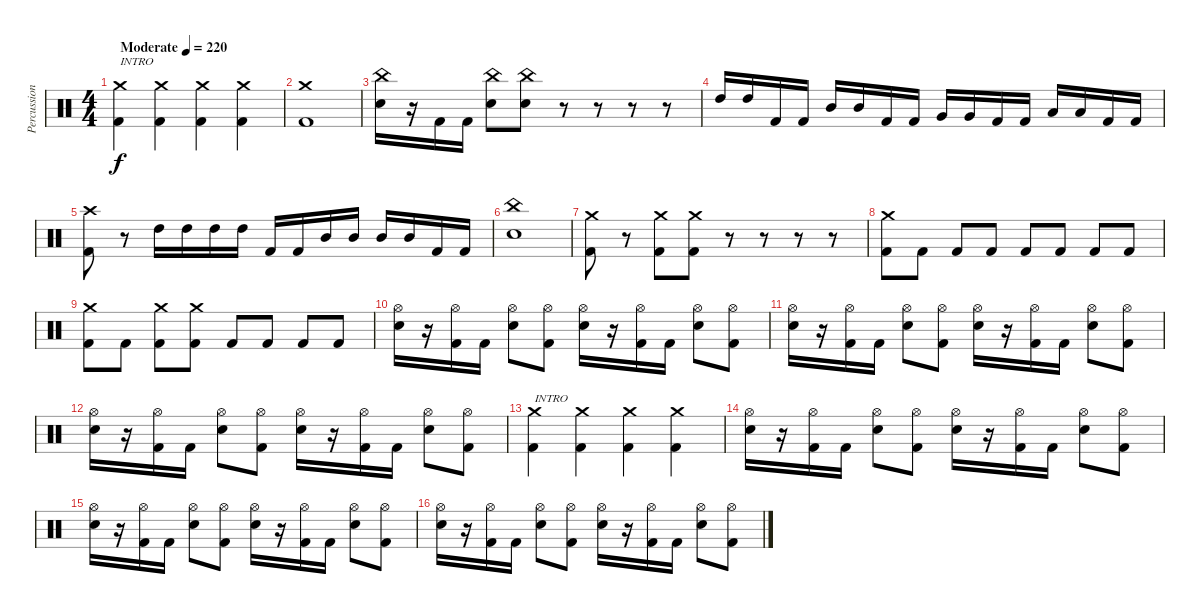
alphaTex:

\track ("Percussion" "Percussion") {solo instrument percussion}
\staff {score}
\articulation defaults
\ts (4 4)
\tempo (220 "Moderate")
\clef neutral
\ks c
("Crash medium (hit)" "Kick (hit) 2").4{txt "INTRO" dy f} ("Crash medium (hit)" "Kick (hit) 2").4 ("Crash medium (hit)" "Kick (hit) 2").4 ("Crash medium (hit)" "Kick (hit) 2").4 |
("Crash medium (hit)" "Kick (hit) 2").1 |
("China (hit)" "Electric Snare (hit)").16 r.16 "Kick (hit) 2".16 "Kick (hit) 2".16 ("China (hit)" "Electric Snare (hit)").8 ("China (hit)" "Electric Snare (hit)").8 r.8 r.8 r.8 r.8 |
"High Tom (hit)".16 "High Tom (hit)".16 "Kick (hit) 2".16 "Kick (hit) 2".16 "Mid Tom (hit)".16 "Mid Tom (hit)".16 "Kick (hit) 2".16 "Kick (hit) 2".16 "Very Low Tom (hit)".16 "Very Low Tom (hit)".16 "Kick (hit) 2".16 "Kick (hit) 2".16 "Low Floor Tom (hit)".16 "Low Floor Tom (hit)".16 "Kick (hit) 2".16 "Kick (hit) 2".16 |
("Crash high (hit)" "Kick (hit) 2").8 r.8 "High Tom (hit)".16 "High Tom (hit)".16 "High Tom (hit)".16 "High Tom (hit)".16 "Kick (hit) 2".16 "Kick (hit) 2".16 "Mid Tom (hit)".16 "Mid Tom (hit)".16 "Mid Tom (hit)".16 "Mid Tom (hit)".16 "Kick (hit) 2".16 "Kick (hit) 2".16 |
("China (hit)" "Electric Snare (hit)").1 |
("Crash medium (hit)" "Kick (hit) 2").8 r.8 ("Crash medium (hit)" "Kick (hit) 2").8 ("Crash medium (hit)" "Kick (hit) 2").8 r.8 r.8 r.8 r.8 |
("Crash medium (hit)" "Kick (hit) 2").8 "Kick (hit) 2".8 "Kick (hit) 2".8 "Kick (hit) 2".8 "Kick (hit) 2".8 "Kick (hit) 2".8 "Kick (hit) 2".8 "Kick (hit) 2".8 |
("Crash medium (hit)" "Kick (hit) 2").8 "Kick (hit) 2".8 ("Crash medium (hit)" "Kick (hit) 2").8 ("Crash medium (hit)" "Kick (hit) 2").8 "Kick (hit) 2".8 "Kick (hit) 2".8 "Kick (hit) 2".8 "Kick (hit) 2".8 |
("Hi-Hat (open)" "Electric Snare (hit)").16 r.16 ("Hi-Hat (open)" "Kick (hit) 2").16 "Kick (hit) 2".16 ("Hi-Hat (open)" "Electric Snare (hit)").8 ("Hi-Hat (open)" "Kick (hit) 2").8 ("Hi-Hat (open)" "Electric Snare (hit)").16 r.16 ("Hi-Hat (open)" "Kick (hit) 2").16 "Kick (hit) 2".16 ("Hi-Hat (open)" "Electric Snare (hit)").8 ("Hi-Hat (open)" "Kick (hit) 2").8 |
("Hi-Hat (open)" "Electric Snare (hit)").16 r.16 ("Hi-Hat (open)" "Kick (hit) 2").16 "Kick (hit) 2".16 ("Hi-Hat (open)" "Electric Snare (hit)").8 ("Hi-Hat (open)" "Kick (hit) 2").8 ("Hi-Hat (open)" "Electric Snare (hit)").16 r.16 ("Hi-Hat (open)" "Kick (hit) 2").16 "Kick (hit) 2".16 ("Hi-Hat (open)" "Electric Snare (hit)").8 ("Hi-Hat (open)" "Kick (hit) 2").8 |
("Hi-Hat (open)" "Electric Snare (hit)").16 r.16 ("Hi-Hat (open)" "Kick (hit) 2").16 "Kick (hit) 2".16 ("Hi-Hat (open)" "Electric Snare (hit)").8 ("Hi-Hat (open)" "Kick (hit) 2").8 ("Hi-Hat (open)" "Electric Snare (hit)").16 r.16 ("Hi-Hat (open)" "Kick (hit) 2").16 "Kick (hit) 2".16 ("Hi-Hat (open)" "Electric Snare (hit)").8 ("Hi-Hat (open)" "Kick (hit) 2").8 |
("Crash medium (hit)" "Kick (hit) 2").4{txt "INTRO"} ("Crash medium (hit)" "Kick (hit) 2").4 ("Crash medium (hit)" "Kick (hit) 2").4 ("Crash medium (hit)" "Kick (hit) 2").4 |
("Hi-Hat (open)" "Electric Snare (hit)").16 r.16 ("Hi-Hat (open)" "Kick (hit) 2").16 "Kick (hit) 2".16 ("Hi-Hat (open)" "Electric Snare (hit)").8 ("Hi-Hat (open)" "Kick (hit) 2").8 ("Hi-Hat (open)" "Electric Snare (hit)").16 r.16 ("Hi-Hat (open)" "Kick (hit) 2").16 "Kick (hit) 2".16 ("Hi-Hat (open)" "Electric Snare (hit)").8 ("Hi-Hat (open)" "Kick (hit) 2").8 |
("Hi-Hat (open)" "Electric Snare (hit)").16 r.16 ("Hi-Hat (open)" "Kick (hit) 2").16 "Kick (hit) 2".16 ("Hi-Hat (open)" "Electric Snare (hit)").8 ("Hi-Hat (open)" "Kick (hit) 2").8 ("Hi-Hat (open)" "Electric Snare (hit)").16 r.16 ("Hi-Hat (open)" "Kick (hit) 2").16 "Kick (hit) 2".16 ("Hi-Hat (open)" "Electric Snare (hit)").8 ("Hi-Hat (open)" "Kick (hit) 2").8 |
("Hi-Hat (open)" "Electric Snare (hit)").16 r.16 ("Hi-Hat (open)" "Kick (hit) 2").16 "Kick (hit) 2".16 ("Hi-Hat (open)" "Electric Snare (hit)").8 ("Hi-Hat (open)" "Kick (hit) 2").8 ("Hi-Hat (open)" "Electric Snare (hit)").16 r.16 ("Hi-Hat (open)" "Kick (hit) 2").16 "Kick (hit) 2".16 ("Hi-Hat (open)" "Electric Snare (hit)").8 ("Hi-Hat (open)" "Kick (hit) 2").8
